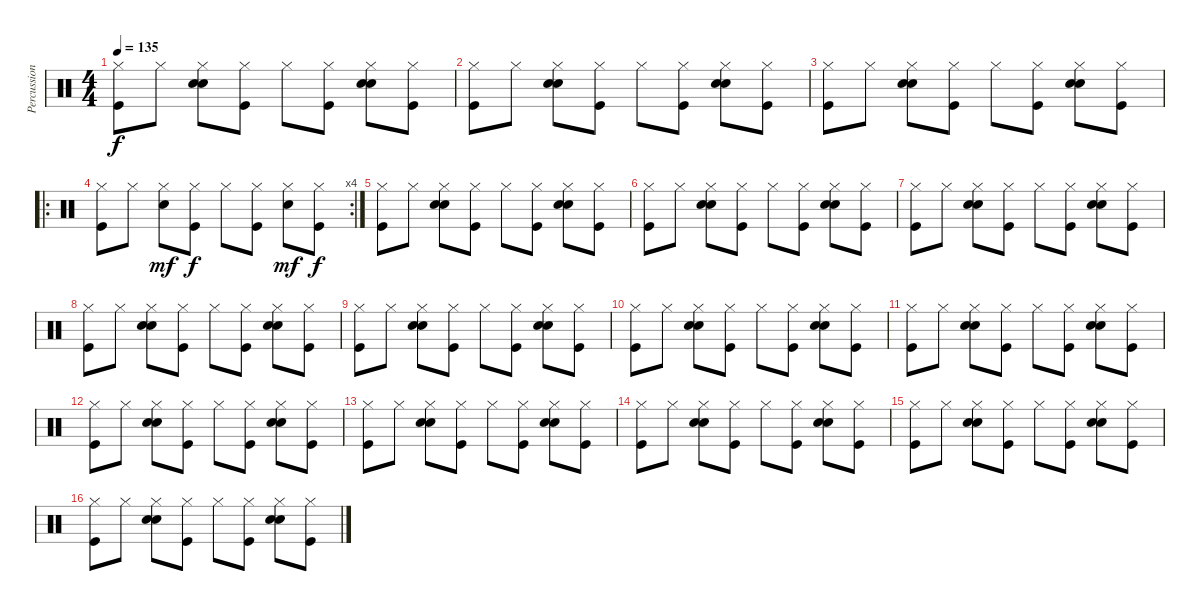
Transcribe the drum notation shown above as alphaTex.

\track ("Percussion" "Percussion") {instrument percussion}
\staff {score}
\articulation defaults
\ts (4 4)
\tempo 135
\clef neutral
\ks c
("Hi-Hat (closed)" "Kick (hit)").8{dy f} "Hi-Hat (closed)".8 ("Hi-Hat (closed)" "Hand Clap (hit)" "Snare (hit) 2").8 ("Hi-Hat (closed)" "Kick (hit)").8 "Hi-Hat (closed)".8 ("Hi-Hat (closed)" "Kick (hit)").8 ("Hi-Hat (closed)" "Snare (hit) 2" "Hand Clap (hit)").8 ("Hi-Hat (closed)" "Kick (hit)").8 |
("Hi-Hat (closed)" "Kick (hit)").8 "Hi-Hat (closed)".8 ("Hi-Hat (closed)" "Hand Clap (hit)" "Snare (hit) 2").8 ("Hi-Hat (closed)" "Kick (hit)").8 "Hi-Hat (closed)".8 ("Hi-Hat (closed)" "Kick (hit)").8 ("Hi-Hat (closed)" "Snare (hit) 2" "Hand Clap (hit)").8 ("Hi-Hat (closed)" "Kick (hit)").8 |
("Hi-Hat (closed)" "Kick (hit)").8 "Hi-Hat (closed)".8 ("Hi-Hat (closed)" "Hand Clap (hit)" "Snare (hit) 2").8 ("Hi-Hat (closed)" "Kick (hit)").8 "Hi-Hat (closed)".8 ("Hi-Hat (closed)" "Kick (hit)").8 ("Hi-Hat (closed)" "Snare (hit) 2" "Hand Clap (hit)").8 ("Hi-Hat (closed)" "Kick (hit)").8 |
\ro
\rc 4
("Hi-Hat (closed)" "Kick (hit)").8 "Hi-Hat (closed)".8 ("Hi-Hat (closed)" "Snare (hit) 2").8{dy mf} ("Hi-Hat (closed)" "Kick (hit)").8{dy f} "Hi-Hat (closed)".8 ("Hi-Hat (closed)" "Kick (hit)").8 ("Hi-Hat (closed)" "Snare (hit) 2").8{dy mf} ("Hi-Hat (closed)" "Kick (hit)").8{dy f} |
("Hi-Hat (closed)" "Kick (hit)").8 "Hi-Hat (closed)".8 ("Hi-Hat (closed)" "Hand Clap (hit)" "Snare (hit) 2").8 ("Hi-Hat (closed)" "Kick (hit)").8 "Hi-Hat (closed)".8 ("Hi-Hat (closed)" "Kick (hit)").8 ("Hi-Hat (closed)" "Snare (hit) 2" "Hand Clap (hit)").8 ("Hi-Hat (closed)" "Kick (hit)").8 |
("Hi-Hat (closed)" "Kick (hit)").8 "Hi-Hat (closed)".8 ("Hi-Hat (closed)" "Hand Clap (hit)" "Snare (hit) 2").8 ("Hi-Hat (closed)" "Kick (hit)").8 "Hi-Hat (closed)".8 ("Hi-Hat (closed)" "Kick (hit)").8 ("Hi-Hat (closed)" "Snare (hit) 2" "Hand Clap (hit)").8 ("Hi-Hat (closed)" "Kick (hit)").8 |
("Hi-Hat (closed)" "Kick (hit)").8 "Hi-Hat (closed)".8 ("Hi-Hat (closed)" "Hand Clap (hit)" "Snare (hit) 2").8 ("Hi-Hat (closed)" "Kick (hit)").8 "Hi-Hat (closed)".8 ("Hi-Hat (closed)" "Kick (hit)").8 ("Hi-Hat (closed)" "Snare (hit) 2" "Hand Clap (hit)").8 ("Hi-Hat (closed)" "Kick (hit)").8 |
("Hi-Hat (closed)" "Kick (hit)").8 "Hi-Hat (closed)".8 ("Hi-Hat (closed)" "Hand Clap (hit)" "Snare (hit) 2").8 ("Hi-Hat (closed)" "Kick (hit)").8 "Hi-Hat (closed)".8 ("Hi-Hat (closed)" "Kick (hit)").8 ("Hi-Hat (closed)" "Snare (hit) 2" "Hand Clap (hit)").8 ("Hi-Hat (closed)" "Kick (hit)").8 |
("Hi-Hat (closed)" "Kick (hit)").8 "Hi-Hat (closed)".8 ("Hi-Hat (closed)" "Hand Clap (hit)" "Snare (hit) 2").8 ("Hi-Hat (closed)" "Kick (hit)").8 "Hi-Hat (closed)".8 ("Hi-Hat (closed)" "Kick (hit)").8 ("Hi-Hat (closed)" "Snare (hit) 2" "Hand Clap (hit)").8 ("Hi-Hat (closed)" "Kick (hit)").8 |
("Hi-Hat (closed)" "Kick (hit)").8 "Hi-Hat (closed)".8 ("Hi-Hat (closed)" "Hand Clap (hit)" "Snare (hit) 2").8 ("Hi-Hat (closed)" "Kick (hit)").8 "Hi-Hat (closed)".8 ("Hi-Hat (closed)" "Kick (hit)").8 ("Hi-Hat (closed)" "Snare (hit) 2" "Hand Clap (hit)").8 ("Hi-Hat (closed)" "Kick (hit)").8 |
("Hi-Hat (closed)" "Kick (hit)").8 "Hi-Hat (closed)".8 ("Hi-Hat (closed)" "Hand Clap (hit)" "Snare (hit) 2").8 ("Hi-Hat (closed)" "Kick (hit)").8 "Hi-Hat (closed)".8 ("Hi-Hat (closed)" "Kick (hit)").8 ("Hi-Hat (closed)" "Snare (hit) 2" "Hand Clap (hit)").8 ("Hi-Hat (closed)" "Kick (hit)").8 |
("Hi-Hat (closed)" "Kick (hit)").8 "Hi-Hat (closed)".8 ("Hi-Hat (closed)" "Hand Clap (hit)" "Snare (hit) 2").8 ("Hi-Hat (closed)" "Kick (hit)").8 "Hi-Hat (closed)".8 ("Hi-Hat (closed)" "Kick (hit)").8 ("Hi-Hat (closed)" "Snare (hit) 2" "Hand Clap (hit)").8 ("Hi-Hat (closed)" "Kick (hit)").8 |
("Hi-Hat (closed)" "Kick (hit)").8 "Hi-Hat (closed)".8 ("Hi-Hat (closed)" "Hand Clap (hit)" "Snare (hit) 2").8 ("Hi-Hat (closed)" "Kick (hit)").8 "Hi-Hat (closed)".8 ("Hi-Hat (closed)" "Kick (hit)").8 ("Hi-Hat (closed)" "Snare (hit) 2" "Hand Clap (hit)").8 ("Hi-Hat (closed)" "Kick (hit)").8 |
("Hi-Hat (closed)" "Kick (hit)").8 "Hi-Hat (closed)".8 ("Hi-Hat (closed)" "Hand Clap (hit)" "Snare (hit) 2").8 ("Hi-Hat (closed)" "Kick (hit)").8 "Hi-Hat (closed)".8 ("Hi-Hat (closed)" "Kick (hit)").8 ("Hi-Hat (closed)" "Snare (hit) 2" "Hand Clap (hit)").8 ("Hi-Hat (closed)" "Kick (hit)").8 |
("Hi-Hat (closed)" "Kick (hit)").8 "Hi-Hat (closed)".8 ("Hi-Hat (closed)" "Hand Clap (hit)" "Snare (hit) 2").8 ("Hi-Hat (closed)" "Kick (hit)").8 "Hi-Hat (closed)".8 ("Hi-Hat (closed)" "Kick (hit)").8 ("Hi-Hat (closed)" "Snare (hit) 2" "Hand Clap (hit)").8 ("Hi-Hat (closed)" "Kick (hit)").8 |
("Hi-Hat (closed)" "Kick (hit)").8 "Hi-Hat (closed)".8 ("Hi-Hat (closed)" "Hand Clap (hit)" "Snare (hit) 2").8 ("Hi-Hat (closed)" "Kick (hit)").8 "Hi-Hat (closed)".8 ("Hi-Hat (closed)" "Kick (hit)").8 ("Hi-Hat (closed)" "Snare (hit) 2" "Hand Clap (hit)").8 ("Hi-Hat (closed)" "Kick (hit)").8
